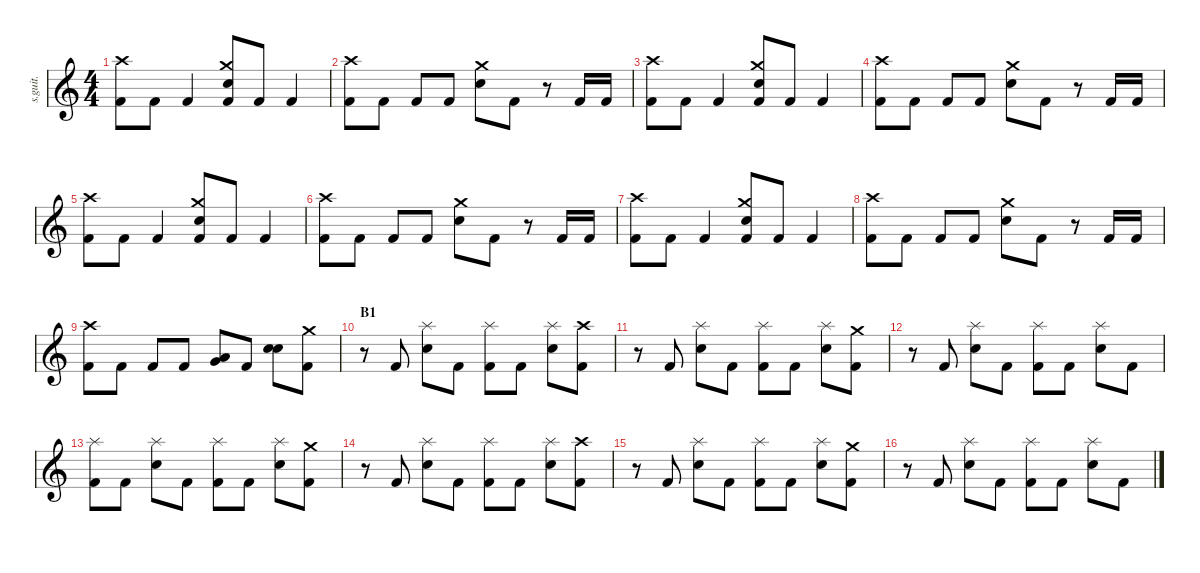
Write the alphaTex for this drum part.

\defaultSystemsLayout 4
\hideDynamics
\bracketExtendMode nobrackets
\track ("Batterie" "s.guit.") {instrument percussion}
\staff {score}
\articulation defaults
\ts (4 4)
\tempo (170 hide)
\clef g2
\ks c
("Crash high (hit)" "Kick (hit) 2").8{lyrics (0 "") lyrics (1 "") lyrics (2 "") lyrics (3 "") lyrics (4 "") dy f} "Kick (hit) 2".8{lyrics (0 "") lyrics (1 "") lyrics (2 "") lyrics (3 "") lyrics (4 "") dy fff} "Kick (hit) 2".4{lyrics (0 "") lyrics (1 "") lyrics (2 "") lyrics (3 "") lyrics (4 "")} ("Crash medium (hit)" "Electric Snare (hit)" "Kick (hit) 2").8{lyrics (0 "") lyrics (1 "") lyrics (2 "") lyrics (3 "") lyrics (4 "") dy f} "Kick (hit) 2".8{lyrics (0 "") lyrics (1 "") lyrics (2 "") lyrics (3 "") lyrics (4 "") dy fff} "Kick (hit) 2".4{lyrics (0 "") lyrics (1 "") lyrics (2 "") lyrics (3 "") lyrics (4 "")} |
("Crash high (hit)" "Kick (hit) 2").8{lyrics (0 "") lyrics (1 "") lyrics (2 "") lyrics (3 "") lyrics (4 "") dy f} "Kick (hit) 2".8{lyrics (0 "") lyrics (1 "") lyrics (2 "") lyrics (3 "") lyrics (4 "") dy fff} "Kick (hit) 2".8{lyrics (0 "") lyrics (1 "") lyrics (2 "") lyrics (3 "") lyrics (4 "")} "Kick (hit) 2".8{lyrics (0 "") lyrics (1 "") lyrics (2 "") lyrics (3 "") lyrics (4 "")} ("Crash medium (hit)" "Electric Snare (hit)").8{lyrics (0 "") lyrics (1 "") lyrics (2 "") lyrics (3 "") lyrics (4 "") dy f} "Kick (hit) 2".8{lyrics (0 "") lyrics (1 "") lyrics (2 "") lyrics (3 "") lyrics (4 "") dy fff} r.8 "Kick (hit) 2".16{lyrics (0 "") lyrics (1 "") lyrics (2 "") lyrics (3 "") lyrics (4 "")} "Kick (hit) 2".16{lyrics (0 "") lyrics (1 "") lyrics (2 "") lyrics (3 "") lyrics (4 "")} |
("Crash high (hit)" "Kick (hit) 2").8{lyrics (0 "") lyrics (1 "") lyrics (2 "") lyrics (3 "") lyrics (4 "") dy f} "Kick (hit) 2".8{lyrics (0 "") lyrics (1 "") lyrics (2 "") lyrics (3 "") lyrics (4 "") dy fff} "Kick (hit) 2".4{lyrics (0 "") lyrics (1 "") lyrics (2 "") lyrics (3 "") lyrics (4 "")} ("Crash medium (hit)" "Electric Snare (hit)" "Kick (hit) 2").8{lyrics (0 "") lyrics (1 "") lyrics (2 "") lyrics (3 "") lyrics (4 "") dy f} "Kick (hit) 2".8{lyrics (0 "") lyrics (1 "") lyrics (2 "") lyrics (3 "") lyrics (4 "") dy fff} "Kick (hit) 2".4{lyrics (0 "") lyrics (1 "") lyrics (2 "") lyrics (3 "") lyrics (4 "")} |
("Crash high (hit)" "Kick (hit) 2").8{lyrics (0 "") lyrics (1 "") lyrics (2 "") lyrics (3 "") lyrics (4 "") dy f} "Kick (hit) 2".8{lyrics (0 "") lyrics (1 "") lyrics (2 "") lyrics (3 "") lyrics (4 "") dy fff} "Kick (hit) 2".8{lyrics (0 "") lyrics (1 "") lyrics (2 "") lyrics (3 "") lyrics (4 "")} "Kick (hit) 2".8{lyrics (0 "") lyrics (1 "") lyrics (2 "") lyrics (3 "") lyrics (4 "")} ("Crash medium (hit)" "Electric Snare (hit)").8{lyrics (0 "") lyrics (1 "") lyrics (2 "") lyrics (3 "") lyrics (4 "") dy f} "Kick (hit) 2".8{lyrics (0 "") lyrics (1 "") lyrics (2 "") lyrics (3 "") lyrics (4 "") dy fff} r.8 "Kick (hit) 2".16{lyrics (0 "") lyrics (1 "") lyrics (2 "") lyrics (3 "") lyrics (4 "")} "Kick (hit) 2".16{lyrics (0 "") lyrics (1 "") lyrics (2 "") lyrics (3 "") lyrics (4 "")} |
("Crash high (hit)" "Kick (hit) 2").8{lyrics (0 "") lyrics (1 "") lyrics (2 "") lyrics (3 "") lyrics (4 "") dy f} "Kick (hit) 2".8{lyrics (0 "") lyrics (1 "") lyrics (2 "") lyrics (3 "") lyrics (4 "") dy fff} "Kick (hit) 2".4{lyrics (0 "") lyrics (1 "") lyrics (2 "") lyrics (3 "") lyrics (4 "")} ("Crash medium (hit)" "Electric Snare (hit)" "Kick (hit) 2").8{lyrics (0 "") lyrics (1 "") lyrics (2 "") lyrics (3 "") lyrics (4 "") dy f} "Kick (hit) 2".8{lyrics (0 "") lyrics (1 "") lyrics (2 "") lyrics (3 "") lyrics (4 "") dy fff} "Kick (hit) 2".4{lyrics (0 "") lyrics (1 "") lyrics (2 "") lyrics (3 "") lyrics (4 "")} |
("Crash high (hit)" "Kick (hit) 2").8{lyrics (0 "") lyrics (1 "") lyrics (2 "") lyrics (3 "") lyrics (4 "") dy f} "Kick (hit) 2".8{lyrics (0 "") lyrics (1 "") lyrics (2 "") lyrics (3 "") lyrics (4 "") dy fff} "Kick (hit) 2".8{lyrics (0 "") lyrics (1 "") lyrics (2 "") lyrics (3 "") lyrics (4 "")} "Kick (hit) 2".8{lyrics (0 "") lyrics (1 "") lyrics (2 "") lyrics (3 "") lyrics (4 "")} ("Crash medium (hit)" "Electric Snare (hit)").8{lyrics (0 "") lyrics (1 "") lyrics (2 "") lyrics (3 "") lyrics (4 "") dy f} "Kick (hit) 2".8{lyrics (0 "") lyrics (1 "") lyrics (2 "") lyrics (3 "") lyrics (4 "") dy fff} r.8 "Kick (hit) 2".16{lyrics (0 "") lyrics (1 "") lyrics (2 "") lyrics (3 "") lyrics (4 "")} "Kick (hit) 2".16{lyrics (0 "") lyrics (1 "") lyrics (2 "") lyrics (3 "") lyrics (4 "")} |
("Crash high (hit)" "Kick (hit) 2").8{lyrics (0 "") lyrics (1 "") lyrics (2 "") lyrics (3 "") lyrics (4 "") dy f} "Kick (hit) 2".8{lyrics (0 "") lyrics (1 "") lyrics (2 "") lyrics (3 "") lyrics (4 "") dy fff} "Kick (hit) 2".4{lyrics (0 "") lyrics (1 "") lyrics (2 "") lyrics (3 "") lyrics (4 "")} ("Crash medium (hit)" "Electric Snare (hit)" "Kick (hit) 2").8{lyrics (0 "") lyrics (1 "") lyrics (2 "") lyrics (3 "") lyrics (4 "") dy f} "Kick (hit) 2".8{lyrics (0 "") lyrics (1 "") lyrics (2 "") lyrics (3 "") lyrics (4 "") dy fff} "Kick (hit) 2".4{lyrics (0 "") lyrics (1 "") lyrics (2 "") lyrics (3 "") lyrics (4 "")} |
("Crash high (hit)" "Kick (hit) 2").8{lyrics (0 "") lyrics (1 "") lyrics (2 "") lyrics (3 "") lyrics (4 "") dy f} "Kick (hit) 2".8{lyrics (0 "") lyrics (1 "") lyrics (2 "") lyrics (3 "") lyrics (4 "") dy fff} "Kick (hit) 2".8{lyrics (0 "") lyrics (1 "") lyrics (2 "") lyrics (3 "") lyrics (4 "")} "Kick (hit) 2".8{lyrics (0 "") lyrics (1 "") lyrics (2 "") lyrics (3 "") lyrics (4 "")} ("Crash medium (hit)" "Electric Snare (hit)").8{lyrics (0 "") lyrics (1 "") lyrics (2 "") lyrics (3 "") lyrics (4 "") dy f} "Kick (hit) 2".8{lyrics (0 "") lyrics (1 "") lyrics (2 "") lyrics (3 "") lyrics (4 "") dy fff} r.8 "Kick (hit) 2".16{lyrics (0 "") lyrics (1 "") lyrics (2 "") lyrics (3 "") lyrics (4 "")} "Kick (hit) 2".16{lyrics (0 "") lyrics (1 "") lyrics (2 "") lyrics (3 "") lyrics (4 "")} |
("Crash high (hit)" "Kick (hit) 2").8{lyrics (0 "") lyrics (1 "") lyrics (2 "") lyrics (3 "") lyrics (4 "") dy f} "Kick (hit) 2".8{lyrics (0 "") lyrics (1 "") lyrics (2 "") lyrics (3 "") lyrics (4 "") dy fff} "Kick (hit) 2".8{lyrics (0 "") lyrics (1 "") lyrics (2 "") lyrics (3 "") lyrics (4 "")} "Kick (hit) 2".8{lyrics (0 "") lyrics (1 "") lyrics (2 "") lyrics (3 "") lyrics (4 "")} ("Very Low Tom (hit)" "Low Floor Tom (hit)").8{lyrics (0 "") lyrics (1 "") lyrics (2 "") lyrics (3 "") lyrics (4 "")} "Kick (hit) 2".8{lyrics (0 "") lyrics (1 "") lyrics (2 "") lyrics (3 "") lyrics (4 "")} ("Electric Snare (hit)" "Electric Snare (hit)").8{lyrics (0 "") lyrics (1 "") lyrics (2 "") lyrics (3 "") lyrics (4 "")} ("Crash medium (hit)" "Kick (hit) 2").8{lyrics (0 "") lyrics (1 "") lyrics (2 "") lyrics (3 "") lyrics (4 "")} |
\section ("" "B1")
r.8 "Kick (hit) 2".8{lyrics (0 "") lyrics (1 "") lyrics (2 "") lyrics (3 "") lyrics (4 "")} ("Splash (hit)" "Electric Snare (hit)").8{lyrics (0 "") lyrics (1 "") lyrics (2 "") lyrics (3 "") lyrics (4 "") dy f} "Kick (hit) 2".8{lyrics (0 "") lyrics (1 "") lyrics (2 "") lyrics (3 "") lyrics (4 "") dy fff} ("Splash (hit)" "Kick (hit) 2").8{lyrics (0 "") lyrics (1 "") lyrics (2 "") lyrics (3 "") lyrics (4 "") dy f} "Kick (hit) 2".8{lyrics (0 "") lyrics (1 "") lyrics (2 "") lyrics (3 "") lyrics (4 "") dy fff} ("Splash (hit)" "Electric Snare (hit)").8{lyrics (0 "") lyrics (1 "") lyrics (2 "") lyrics (3 "") lyrics (4 "") dy f} ("Crash high (hit)" "Kick (hit) 2").8{lyrics (0 "") lyrics (1 "") lyrics (2 "") lyrics (3 "") lyrics (4 "")} |
r.8 "Kick (hit) 2".8{lyrics (0 "") lyrics (1 "") lyrics (2 "") lyrics (3 "") lyrics (4 "") dy fff} ("Splash (hit)" "Electric Snare (hit)").8{lyrics (0 "") lyrics (1 "") lyrics (2 "") lyrics (3 "") lyrics (4 "") dy f} "Kick (hit) 2".8{lyrics (0 "") lyrics (1 "") lyrics (2 "") lyrics (3 "") lyrics (4 "") dy fff} ("Splash (hit)" "Kick (hit) 2").8{lyrics (0 "") lyrics (1 "") lyrics (2 "") lyrics (3 "") lyrics (4 "") dy f} "Kick (hit) 2".8{lyrics (0 "") lyrics (1 "") lyrics (2 "") lyrics (3 "") lyrics (4 "") dy fff} ("Splash (hit)" "Electric Snare (hit)").8{lyrics (0 "") lyrics (1 "") lyrics (2 "") lyrics (3 "") lyrics (4 "") dy f} ("Crash medium (hit)" "Kick (hit) 2").8{lyrics (0 "") lyrics (1 "") lyrics (2 "") lyrics (3 "") lyrics (4 "")} |
r.8 "Kick (hit) 2".8{lyrics (0 "") lyrics (1 "") lyrics (2 "") lyrics (3 "") lyrics (4 "") dy fff} ("Splash (hit)" "Electric Snare (hit)").8{lyrics (0 "") lyrics (1 "") lyrics (2 "") lyrics (3 "") lyrics (4 "") dy f} "Kick (hit) 2".8{lyrics (0 "") lyrics (1 "") lyrics (2 "") lyrics (3 "") lyrics (4 "") dy fff} ("Splash (hit)" "Kick (hit) 2").8{lyrics (0 "") lyrics (1 "") lyrics (2 "") lyrics (3 "") lyrics (4 "") dy f} "Kick (hit) 2".8{lyrics (0 "") lyrics (1 "") lyrics (2 "") lyrics (3 "") lyrics (4 "") dy fff} ("Splash (hit)" "Electric Snare (hit)").8{lyrics (0 "") lyrics (1 "") lyrics (2 "") lyrics (3 "") lyrics (4 "") dy f} "Kick (hit) 2".8{lyrics (0 "") lyrics (1 "") lyrics (2 "") lyrics (3 "") lyrics (4 "") dy fff} |
("Splash (hit)" "Kick (hit) 2").8{lyrics (0 "") lyrics (1 "") lyrics (2 "") lyrics (3 "") lyrics (4 "") dy f} "Kick (hit) 2".8{lyrics (0 "") lyrics (1 "") lyrics (2 "") lyrics (3 "") lyrics (4 "") dy fff} ("Splash (hit)" "Electric Snare (hit)").8{lyrics (0 "") lyrics (1 "") lyrics (2 "") lyrics (3 "") lyrics (4 "") dy f} "Kick (hit) 2".8{lyrics (0 "") lyrics (1 "") lyrics (2 "") lyrics (3 "") lyrics (4 "") dy fff} ("Splash (hit)" "Kick (hit) 2").8{lyrics (0 "") lyrics (1 "") lyrics (2 "") lyrics (3 "") lyrics (4 "") dy f} "Kick (hit) 2".8{lyrics (0 "") lyrics (1 "") lyrics (2 "") lyrics (3 "") lyrics (4 "") dy fff} ("Splash (hit)" "Electric Snare (hit)").8{lyrics (0 "") lyrics (1 "") lyrics (2 "") lyrics (3 "") lyrics (4 "") dy f} ("Crash medium (hit)" "Kick (hit) 2").8{lyrics (0 "") lyrics (1 "") lyrics (2 "") lyrics (3 "") lyrics (4 "")} |
r.8 "Kick (hit) 2".8{lyrics (0 "") lyrics (1 "") lyrics (2 "") lyrics (3 "") lyrics (4 "") dy fff} ("Splash (hit)" "Electric Snare (hit)").8{lyrics (0 "") lyrics (1 "") lyrics (2 "") lyrics (3 "") lyrics (4 "") dy f} "Kick (hit) 2".8{lyrics (0 "") lyrics (1 "") lyrics (2 "") lyrics (3 "") lyrics (4 "") dy fff} ("Splash (hit)" "Kick (hit) 2").8{lyrics (0 "") lyrics (1 "") lyrics (2 "") lyrics (3 "") lyrics (4 "") dy f} "Kick (hit) 2".8{lyrics (0 "") lyrics (1 "") lyrics (2 "") lyrics (3 "") lyrics (4 "") dy fff} ("Splash (hit)" "Electric Snare (hit)").8{lyrics (0 "") lyrics (1 "") lyrics (2 "") lyrics (3 "") lyrics (4 "") dy f} ("Crash high (hit)" "Kick (hit) 2").8{lyrics (0 "") lyrics (1 "") lyrics (2 "") lyrics (3 "") lyrics (4 "")} |
r.8 "Kick (hit) 2".8{lyrics (0 "") lyrics (1 "") lyrics (2 "") lyrics (3 "") lyrics (4 "") dy fff} ("Splash (hit)" "Electric Snare (hit)").8{lyrics (0 "") lyrics (1 "") lyrics (2 "") lyrics (3 "") lyrics (4 "") dy f} "Kick (hit) 2".8{lyrics (0 "") lyrics (1 "") lyrics (2 "") lyrics (3 "") lyrics (4 "") dy fff} ("Splash (hit)" "Kick (hit) 2").8{lyrics (0 "") lyrics (1 "") lyrics (2 "") lyrics (3 "") lyrics (4 "") dy f} "Kick (hit) 2".8{lyrics (0 "") lyrics (1 "") lyrics (2 "") lyrics (3 "") lyrics (4 "") dy fff} ("Splash (hit)" "Electric Snare (hit)").8{lyrics (0 "") lyrics (1 "") lyrics (2 "") lyrics (3 "") lyrics (4 "") dy f} ("Crash medium (hit)" "Kick (hit) 2").8{lyrics (0 "") lyrics (1 "") lyrics (2 "") lyrics (3 "") lyrics (4 "")} |
r.8 "Kick (hit) 2".8{lyrics (0 "") lyrics (1 "") lyrics (2 "") lyrics (3 "") lyrics (4 "") dy fff} ("Splash (hit)" "Electric Snare (hit)").8{lyrics (0 "") lyrics (1 "") lyrics (2 "") lyrics (3 "") lyrics (4 "") dy f} "Kick (hit) 2".8{lyrics (0 "") lyrics (1 "") lyrics (2 "") lyrics (3 "") lyrics (4 "") dy fff} ("Splash (hit)" "Kick (hit) 2").8{lyrics (0 "") lyrics (1 "") lyrics (2 "") lyrics (3 "") lyrics (4 "") dy f} "Kick (hit) 2".8{lyrics (0 "") lyrics (1 "") lyrics (2 "") lyrics (3 "") lyrics (4 "") dy fff} ("Splash (hit)" "Electric Snare (hit)").8{lyrics (0 "") lyrics (1 "") lyrics (2 "") lyrics (3 "") lyrics (4 "") dy f} "Kick (hit) 2".8{lyrics (0 "") lyrics (1 "") lyrics (2 "") lyrics (3 "") lyrics (4 "") dy fff}
